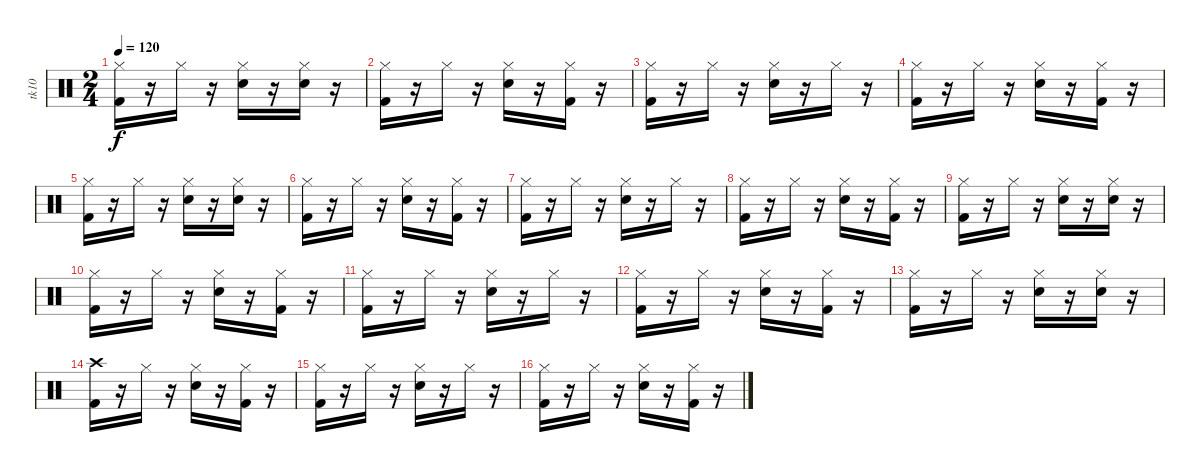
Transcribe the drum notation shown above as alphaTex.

\track ("tk10" "tk10") {instrument percussion}
\staff {score}
\articulation defaults
\ts (2 4)
\tempo 120
\clef neutral
\ks c
("Hi-Hat (closed)" "Kick (hit) 2").16{dy f} r.16 "Hi-Hat (closed)".16 r.16 ("Snare (hit) 2" "Hi-Hat (closed)").16 r.16 ("Hi-Hat (closed)" "Snare (hit) 2").16 r.16 |
("Hi-Hat (closed)" "Kick (hit) 2").16 r.16 "Hi-Hat (closed)".16 r.16 ("Hi-Hat (closed)" "Snare (hit) 2").16 r.16 ("Kick (hit) 2" "Hi-Hat (closed)").16 r.16 |
("Kick (hit) 2" "Hi-Hat (closed)").16 r.16 "Hi-Hat (closed)".16 r.16 ("Hi-Hat (closed)" "Snare (hit) 2").16 r.16 "Hi-Hat (closed)".16 r.16 |
("Hi-Hat (closed)" "Kick (hit) 2").16 r.16 "Hi-Hat (closed)".16 r.16 ("Snare (hit) 2" "Hi-Hat (closed)").16 r.16 ("Hi-Hat (closed)" "Kick (hit) 2").16 r.16 |
("Hi-Hat (closed)" "Kick (hit) 2").16 r.16 "Hi-Hat (closed)".16 r.16 ("Snare (hit) 2" "Hi-Hat (closed)").16 r.16 ("Hi-Hat (closed)" "Snare (hit) 2").16 r.16 |
("Hi-Hat (closed)" "Kick (hit) 2").16 r.16 "Hi-Hat (closed)".16 r.16 ("Hi-Hat (closed)" "Snare (hit) 2").16 r.16 ("Kick (hit) 2" "Hi-Hat (closed)").16 r.16 |
("Kick (hit) 2" "Hi-Hat (closed)").16 r.16 "Hi-Hat (closed)".16 r.16 ("Hi-Hat (closed)" "Snare (hit) 2").16 r.16 "Hi-Hat (closed)".16 r.16 |
("Hi-Hat (closed)" "Kick (hit) 2").16 r.16 "Hi-Hat (closed)".16 r.16 ("Hi-Hat (closed)" "Snare (hit) 2").16 r.16 ("Kick (hit) 2" "Hi-Hat (closed)").16 r.16 |
("Kick (hit) 2" "Hi-Hat (closed)").16 r.16 "Hi-Hat (closed)".16 r.16 ("Hi-Hat (closed)" "Snare (hit) 2").16 r.16 ("Hi-Hat (closed)" "Snare (hit) 2").16 r.16 |
("Hi-Hat (closed)" "Kick (hit) 2").16 r.16 "Hi-Hat (closed)".16 r.16 ("Snare (hit) 2" "Hi-Hat (closed)").16 r.16 ("Hi-Hat (closed)" "Kick (hit) 2").16 r.16 |
("Kick (hit) 2" "Hi-Hat (closed)").16 r.16 "Hi-Hat (closed)".16 r.16 ("Hi-Hat (closed)" "Snare (hit) 2").16 r.16 "Hi-Hat (closed)".16 r.16 |
("Hi-Hat (closed)" "Kick (hit) 2").16 r.16 "Hi-Hat (closed)".16 r.16 ("Hi-Hat (closed)" "Snare (hit) 2").16 r.16 ("Hi-Hat (closed)" "Kick (hit) 2").16 r.16 |
("Hi-Hat (closed)" "Kick (hit) 2").16 r.16 "Hi-Hat (closed)".16 r.16 ("Hi-Hat (closed)" "Snare (hit) 2").16 r.16 ("Snare (hit) 2" "Hi-Hat (closed)").16 r.16 |
("Kick (hit) 2" "Crash high (hit)").16 r.16 "Hi-Hat (closed)".16 r.16 ("Snare (hit) 2" "Hi-Hat (closed)").16 r.16 ("Hi-Hat (closed)" "Kick (hit) 2").16 r.16 |
("Hi-Hat (closed)" "Kick (hit) 2").16 r.16 "Hi-Hat (closed)".16 r.16 ("Snare (hit) 2" "Hi-Hat (closed)").16 r.16 "Hi-Hat (closed)".16 r.16 |
("Hi-Hat (closed)" "Kick (hit) 2").16 r.16 "Hi-Hat (closed)".16 r.16 ("Snare (hit) 2" "Hi-Hat (closed)").16 r.16 ("Kick (hit) 2" "Hi-Hat (closed)").16 r.16
